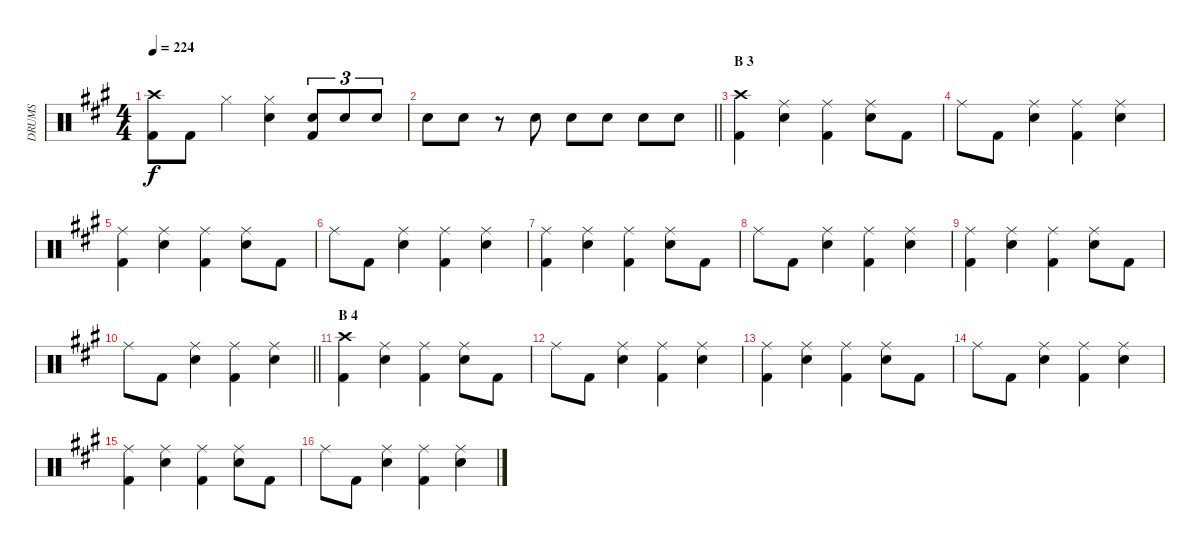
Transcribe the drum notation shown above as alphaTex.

\track ("DRUMS" "DRUMS") {instrument percussion}
\staff {score}
\articulation defaults
\ts (4 4)
\tempo 224
\clef neutral
\ks a
("Crash high (hit)" "Kick (hit) 2").8{dy f} "Kick (hit) 2".8 "Hi-Hat (closed)".4 ("Hi-Hat (closed)" "Snare (hit) 2").4 ("Snare (hit) 2" "Kick (hit) 2").8{tu (3 2)} "Snare (hit) 2".8{tu (3 2)} "Snare (hit) 2".8{tu (3 2)} |
\barLineRight lightlight "Snare (hit) 2".8 "Snare (hit) 2".8
r.8 "Snare (hit) 2".8 "Snare (hit) 2".8 "Snare (hit) 2".8 "Snare (hit) 2".8 "Snare (hit) 2".8 |
\section ("" "B 3")
("Crash high (hit)" "Kick (hit) 2").4{volume 12} ("Ride (middle)" "Snare (hit) 2").4 ("Ride (middle)" "Kick (hit) 2").4 ("Ride (middle)" "Snare (hit) 2").8 "Kick (hit) 2".8 |
"Ride (middle)".8 "Kick (hit) 2".8 ("Ride (middle)" "Snare (hit) 2").4 ("Ride (middle)" "Kick (hit) 2").4 ("Ride (middle)" "Snare (hit) 2").4 |
("Ride (middle)" "Kick (hit) 2").4 ("Ride (middle)" "Snare (hit) 2").4 ("Ride (middle)" "Kick (hit) 2").4 ("Ride (middle)" "Snare (hit) 2").8 "Kick (hit) 2".8 |
"Ride (middle)".8 "Kick (hit) 2".8 ("Ride (middle)" "Snare (hit) 2").4 ("Ride (middle)" "Kick (hit) 2").4 ("Ride (middle)" "Snare (hit) 2").4 |
("Ride (middle)" "Kick (hit) 2").4 ("Ride (middle)" "Snare (hit) 2").4 ("Ride (middle)" "Kick (hit) 2").4 ("Ride (middle)" "Snare (hit) 2").8 "Kick (hit) 2".8 |
"Ride (middle)".8 "Kick (hit) 2".8 ("Ride (middle)" "Snare (hit) 2").4 ("Ride (middle)" "Kick (hit) 2").4 ("Ride (middle)" "Snare (hit) 2").4 |
("Ride (middle)" "Kick (hit) 2").4 ("Ride (middle)" "Snare (hit) 2").4 ("Ride (middle)" "Kick (hit) 2").4 ("Ride (middle)" "Snare (hit) 2").8 "Kick (hit) 2".8 |
\barLineRight lightlight "Ride (middle)".8 "Kick (hit) 2".8
("Ride (middle)" "Snare (hit) 2").4 ("Ride (middle)" "Kick (hit) 2").4 ("Ride (middle)" "Snare (hit) 2").4 |
\section ("" "B 4")
("Crash high (hit)" "Kick (hit) 2").4 ("Ride (middle)" "Snare (hit) 2").4 ("Ride (middle)" "Kick (hit) 2").4 ("Ride (middle)" "Snare (hit) 2").8 "Kick (hit) 2".8 |
"Ride (middle)".8 "Kick (hit) 2".8 ("Ride (middle)" "Snare (hit) 2").4 ("Ride (middle)" "Kick (hit) 2").4 ("Ride (middle)" "Snare (hit) 2").4 |
("Ride (middle)" "Kick (hit) 2").4 ("Ride (middle)" "Snare (hit) 2").4 ("Ride (middle)" "Kick (hit) 2").4 ("Ride (middle)" "Snare (hit) 2").8 "Kick (hit) 2".8 |
"Ride (middle)".8 "Kick (hit) 2".8 ("Ride (middle)" "Snare (hit) 2").4 ("Ride (middle)" "Kick (hit) 2").4 ("Ride (middle)" "Snare (hit) 2").4 |
("Ride (middle)" "Kick (hit) 2").4 ("Ride (middle)" "Snare (hit) 2").4 ("Ride (middle)" "Kick (hit) 2").4 ("Ride (middle)" "Snare (hit) 2").8 "Kick (hit) 2".8 |
"Ride (middle)".8 "Kick (hit) 2".8 ("Ride (middle)" "Snare (hit) 2").4 ("Ride (middle)" "Kick (hit) 2").4 ("Ride (middle)" "Snare (hit) 2").4
